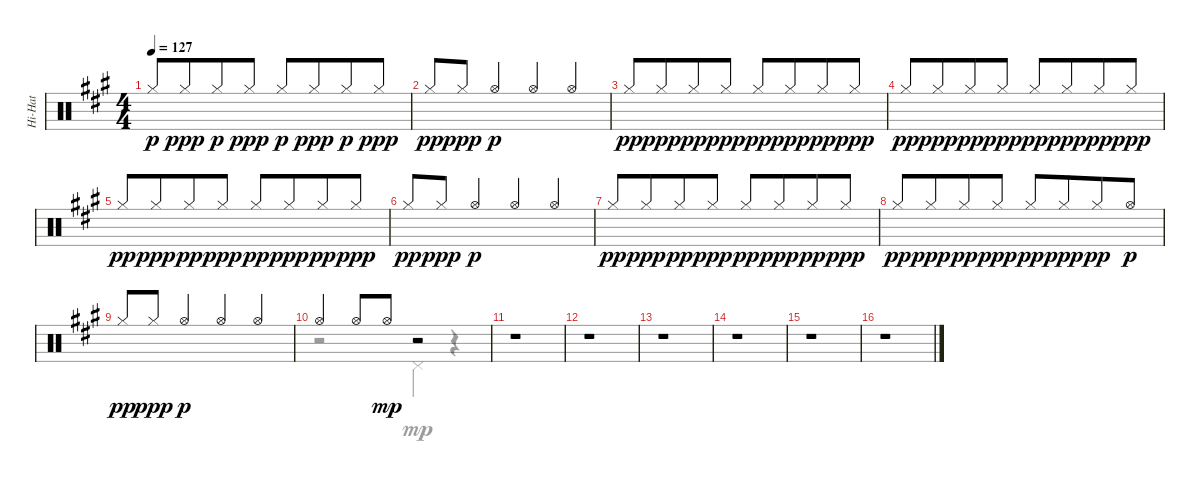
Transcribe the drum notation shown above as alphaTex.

\track ("Hi-Hat" "Hi-Hat") {instrument percussion}
\staff {score}
\articulation defaults
\voice
\ts (4 4)
\tempo 127
\clef neutral
\ks a "Hi-Hat (closed)".8{dy p beam Up} "Hi-Hat (closed)".8{dy ppp beam Up beam merge} "Hi-Hat (closed)".8{dy p beam Up} "Hi-Hat (closed)".8{dy ppp beam Up} "Hi-Hat (closed)".8{dy p beam Up} "Hi-Hat (closed)".8{dy ppp beam Up beam merge} "Hi-Hat (closed)".8{dy p beam Up} "Hi-Hat (closed)".8{dy ppp beam Up}
|
"Hi-Hat (closed)".8{dy pp beam Up} "Hi-Hat (closed)".8{dy ppp beam Up beam merge} "Hi-Hat (open)".4{dy p beam Up} "Hi-Hat (open)".4{beam Up} "Hi-Hat (open)".4{beam Up} |
"Hi-Hat (closed)".8{dy pp beam Up} "Hi-Hat (closed)".8{dy ppp beam Up beam merge} "Hi-Hat (closed)".8{dy pp beam Up} "Hi-Hat (closed)".8{dy ppp beam Up} "Hi-Hat (closed)".8{dy pp beam Up} "Hi-Hat (closed)".8{dy ppp beam Up beam merge} "Hi-Hat (closed)".8{dy pp beam Up} "Hi-Hat (closed)".8{dy ppp beam Up} |
"Hi-Hat (closed)".8{dy pp beam Up} "Hi-Hat (closed)".8{dy ppp beam Up beam merge} "Hi-Hat (closed)".8{dy pp beam Up} "Hi-Hat (closed)".8{dy ppp beam Up} "Hi-Hat (closed)".8{dy pp beam Up} "Hi-Hat (closed)".8{dy ppp beam Up beam merge} "Hi-Hat (closed)".8{dy pp beam Up} "Hi-Hat (closed)".8{dy ppp beam Up} |
"Hi-Hat (closed)".8{dy pp beam Up} "Hi-Hat (closed)".8{dy ppp beam Up beam merge} "Hi-Hat (closed)".8{dy pp beam Up} "Hi-Hat (closed)".8{dy ppp beam Up} "Hi-Hat (closed)".8{dy pp beam Up} "Hi-Hat (closed)".8{dy ppp beam Up beam merge} "Hi-Hat (closed)".8{dy pp beam Up} "Hi-Hat (closed)".8{dy ppp beam Up} |
"Hi-Hat (closed)".8{dy pp beam Up} "Hi-Hat (closed)".8{dy ppp beam Up beam merge} "Hi-Hat (open)".4{dy p beam Up} "Hi-Hat (open)".4{beam Up} "Hi-Hat (open)".4{beam Up} |
"Hi-Hat (closed)".8{dy pp beam Up} "Hi-Hat (closed)".8{dy ppp beam Up beam merge} "Hi-Hat (closed)".8{dy pp beam Up} "Hi-Hat (closed)".8{dy ppp beam Up} "Hi-Hat (closed)".8{dy pp beam Up} "Hi-Hat (closed)".8{dy ppp beam Up beam merge} "Hi-Hat (closed)".8{dy pp beam Up} "Hi-Hat (closed)".8{dy ppp beam Up} |
"Hi-Hat (closed)".8{dy pp beam Up} "Hi-Hat (closed)".8{dy ppp beam Up beam merge} "Hi-Hat (closed)".8{dy pp beam Up} "Hi-Hat (closed)".8{dy ppp beam Up} "Hi-Hat (closed)".8{dy pp beam Up} "Hi-Hat (closed)".8{dy ppp beam Up beam merge} "Hi-Hat (closed)".8{dy pp beam Up} "Hi-Hat (open)".8{dy p beam Up} |
"Hi-Hat (closed)".8{dy pp beam Up} "Hi-Hat (closed)".8{dy ppp beam Up} "Hi-Hat (open)".4{dy p beam Up} "Hi-Hat (open)".4{beam Up} "Hi-Hat (open)".4{beam Up} |
"Hi-Hat (open)".4{beam Up} "Hi-Hat (open)".8{beam Up} "Hi-Hat (open)".8{dy mp} r.2 |
r.1 |
r.1 |
r.1 |
r.1 |
r.1 |
r.1
\voice
\clef neutral
\ottava regular
\simile none
\ks a
|
|
|
|
|
|
|
|
|
r.2 "Pedal Hi-Hat (hit)".4 r.4 |
|
|
|
|
|
